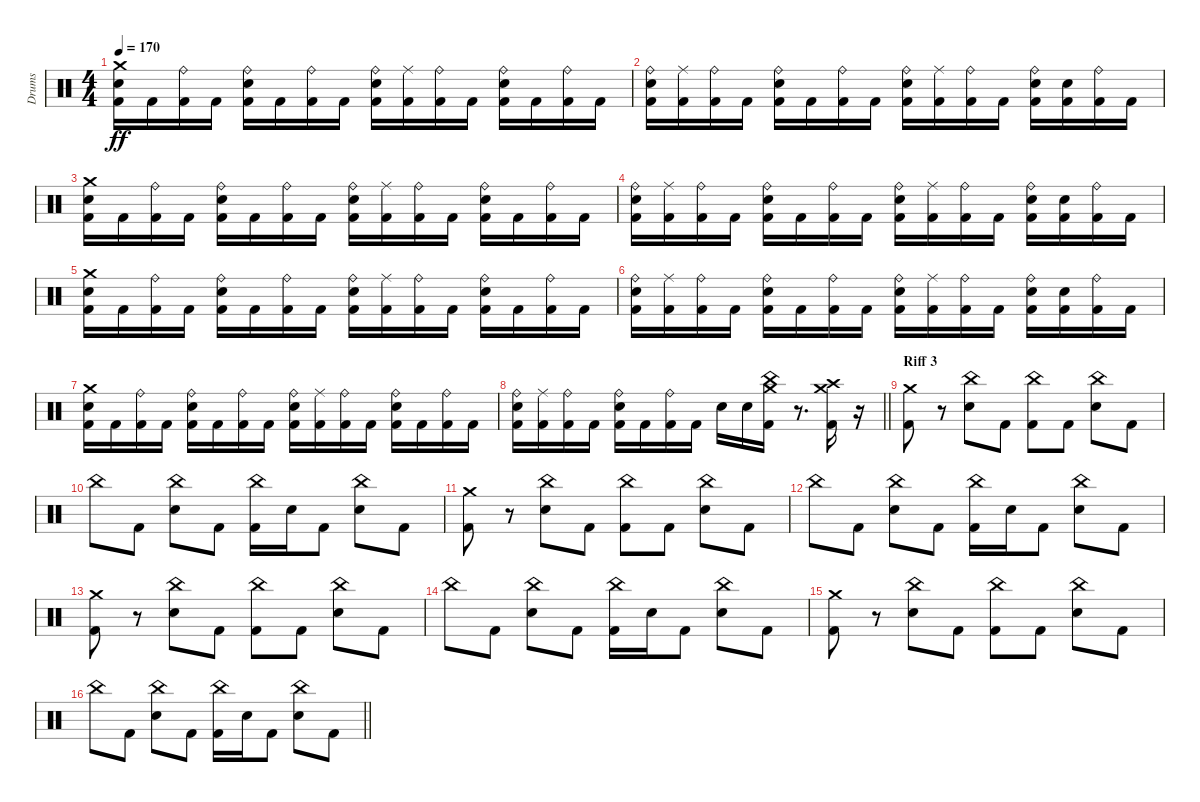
\track ("Drums" "Drums") {instrument percussion}
\staff {score}
\articulation defaults
\ts (4 4)
\tempo 170
\clef neutral
\ks c
("Crash medium (hit)" "Kick (hit) 2" "Snare (hit) 2").16{dy ff} "Kick (hit) 2".16 ("Kick (hit) 2" "Ride (bell)").16 "Kick (hit) 2".16 ("Kick (hit) 2" "Snare (hit) 2" "Ride (bell)").16 "Kick (hit) 2".16 ("Kick (hit) 2" "Ride (bell)").16 "Kick (hit) 2".16 ("Kick (hit) 2" "Snare (hit) 2" "Ride (bell)").16 ("Kick (hit) 2" "Ride (middle)").16 ("Kick (hit) 2" "Ride (bell)").16 "Kick (hit) 2".16 ("Kick (hit) 2" "Snare (hit) 2" "Ride (bell)").16 "Kick (hit) 2".16 ("Kick (hit) 2" "Ride (bell)").16 "Kick (hit) 2".16 |
("Kick (hit) 2" "Snare (hit) 2" "Ride (bell)").16 ("Kick (hit) 2" "Ride (middle)").16 ("Kick (hit) 2" "Ride (bell)").16 "Kick (hit) 2".16 ("Kick (hit) 2" "Snare (hit) 2" "Ride (bell)").16 "Kick (hit) 2".16 ("Kick (hit) 2" "Ride (bell)").16 "Kick (hit) 2".16 ("Kick (hit) 2" "Snare (hit) 2" "Ride (bell)").16 ("Kick (hit) 2" "Ride (middle)").16 ("Kick (hit) 2" "Ride (bell)").16 "Kick (hit) 2".16 ("Kick (hit) 2" "Snare (hit) 2" "Ride (bell)").16 ("Kick (hit) 2" "Snare (hit) 2").16 ("Kick (hit) 2" "Ride (bell)").16 "Kick (hit) 2".16 |
("Crash medium (hit)" "Kick (hit) 2" "Snare (hit) 2").16 "Kick (hit) 2".16 ("Kick (hit) 2" "Ride (bell)").16 "Kick (hit) 2".16 ("Kick (hit) 2" "Snare (hit) 2" "Ride (bell)").16 "Kick (hit) 2".16 ("Kick (hit) 2" "Ride (bell)").16 "Kick (hit) 2".16 ("Kick (hit) 2" "Snare (hit) 2" "Ride (bell)").16 ("Kick (hit) 2" "Ride (middle)").16 ("Kick (hit) 2" "Ride (bell)").16 "Kick (hit) 2".16 ("Kick (hit) 2" "Snare (hit) 2" "Ride (bell)").16 "Kick (hit) 2".16 ("Kick (hit) 2" "Ride (bell)").16 "Kick (hit) 2".16 |
("Kick (hit) 2" "Snare (hit) 2" "Ride (bell)").16 ("Kick (hit) 2" "Ride (middle)").16 ("Kick (hit) 2" "Ride (bell)").16 "Kick (hit) 2".16 ("Kick (hit) 2" "Snare (hit) 2" "Ride (bell)").16 "Kick (hit) 2".16 ("Kick (hit) 2" "Ride (bell)").16 "Kick (hit) 2".16 ("Kick (hit) 2" "Snare (hit) 2" "Ride (bell)").16 ("Kick (hit) 2" "Ride (middle)").16 ("Kick (hit) 2" "Ride (bell)").16 "Kick (hit) 2".16 ("Kick (hit) 2" "Snare (hit) 2" "Ride (bell)").16 ("Kick (hit) 2" "Snare (hit) 2").16 ("Kick (hit) 2" "Ride (bell)").16 "Kick (hit) 2".16 |
("Crash medium (hit)" "Kick (hit) 2" "Snare (hit) 2").16 "Kick (hit) 2".16 ("Kick (hit) 2" "Ride (bell)").16 "Kick (hit) 2".16 ("Kick (hit) 2" "Snare (hit) 2" "Ride (bell)").16 "Kick (hit) 2".16 ("Kick (hit) 2" "Ride (bell)").16 "Kick (hit) 2".16 ("Kick (hit) 2" "Snare (hit) 2" "Ride (bell)").16 ("Kick (hit) 2" "Ride (middle)").16 ("Kick (hit) 2" "Ride (bell)").16 "Kick (hit) 2".16 ("Kick (hit) 2" "Snare (hit) 2" "Ride (bell)").16 "Kick (hit) 2".16 ("Kick (hit) 2" "Ride (bell)").16 "Kick (hit) 2".16 |
("Kick (hit) 2" "Snare (hit) 2" "Ride (bell)").16 ("Kick (hit) 2" "Ride (middle)").16 ("Kick (hit) 2" "Ride (bell)").16 "Kick (hit) 2".16 ("Kick (hit) 2" "Snare (hit) 2" "Ride (bell)").16 "Kick (hit) 2".16 ("Kick (hit) 2" "Ride (bell)").16 "Kick (hit) 2".16 ("Kick (hit) 2" "Snare (hit) 2" "Ride (bell)").16 ("Kick (hit) 2" "Ride (middle)").16 ("Kick (hit) 2" "Ride (bell)").16 "Kick (hit) 2".16 ("Kick (hit) 2" "Snare (hit) 2" "Ride (bell)").16 ("Kick (hit) 2" "Snare (hit) 2").16 ("Kick (hit) 2" "Ride (bell)").16 "Kick (hit) 2".16 |
("Crash medium (hit)" "Kick (hit) 2" "Snare (hit) 2").16 "Kick (hit) 2".16 ("Kick (hit) 2" "Ride (bell)").16 "Kick (hit) 2".16 ("Kick (hit) 2" "Snare (hit) 2" "Ride (bell)").16 "Kick (hit) 2".16 ("Kick (hit) 2" "Ride (bell)").16 "Kick (hit) 2".16 ("Kick (hit) 2" "Snare (hit) 2" "Ride (bell)").16 ("Kick (hit) 2" "Ride (middle)").16 ("Kick (hit) 2" "Ride (bell)").16 "Kick (hit) 2".16 ("Kick (hit) 2" "Snare (hit) 2" "Ride (bell)").16 "Kick (hit) 2".16 ("Kick (hit) 2" "Ride (bell)").16 "Kick (hit) 2".16 |
\barLineRight lightlight
("Kick (hit) 2" "Snare (hit) 2" "Ride (bell)").16 ("Kick (hit) 2" "Ride (middle)").16 ("Kick (hit) 2" "Ride (bell)").16 "Kick (hit) 2".16 ("Kick (hit) 2" "Snare (hit) 2" "Ride (bell)").16 "Kick (hit) 2".16 ("Kick (hit) 2" "Ride (bell)").16 "Kick (hit) 2".16 "Snare (hit) 2".16 "Snare (hit) 2".16 ("China (hit)" "Crash medium (hit)" "Kick (hit) 2").16 r.8{d} ("Crash high (hit)" "Crash medium (hit)" "Kick (hit) 2").16 r.16 |
\section ("" "Riff 3")
("Crash medium (hit)" "Kick (hit) 2").8 r.8 ("China (hit)" "Snare (hit) 2").8 "Kick (hit) 2".8 ("China (hit)" "Kick (hit) 2").8 "Kick (hit) 2".8 ("China (hit)" "Snare (hit) 2").8 "Kick (hit) 2".8 |
"China (hit)".8 "Kick (hit) 2".8 ("China (hit)" "Snare (hit) 2").8 "Kick (hit) 2".8 ("China (hit)" "Kick (hit) 2").16 "Snare (hit) 2".16 "Kick (hit) 2".8 ("China (hit)" "Snare (hit) 2").8 "Kick (hit) 2".8 |
("Crash medium (hit)" "Kick (hit) 2").8 r.8 ("China (hit)" "Snare (hit) 2").8 "Kick (hit) 2".8 ("China (hit)" "Kick (hit) 2").8 "Kick (hit) 2".8 ("China (hit)" "Snare (hit) 2").8 "Kick (hit) 2".8 |
"China (hit)".8 "Kick (hit) 2".8 ("China (hit)" "Snare (hit) 2").8 "Kick (hit) 2".8 ("China (hit)" "Kick (hit) 2").16 "Snare (hit) 2".16 "Kick (hit) 2".8 ("China (hit)" "Snare (hit) 2").8 "Kick (hit) 2".8 |
("Crash medium (hit)" "Kick (hit) 2").8 r.8 ("China (hit)" "Snare (hit) 2").8 "Kick (hit) 2".8 ("China (hit)" "Kick (hit) 2").8 "Kick (hit) 2".8 ("China (hit)" "Snare (hit) 2").8 "Kick (hit) 2".8 |
"China (hit)".8 "Kick (hit) 2".8 ("China (hit)" "Snare (hit) 2").8 "Kick (hit) 2".8 ("China (hit)" "Kick (hit) 2").16 "Snare (hit) 2".16 "Kick (hit) 2".8 ("China (hit)" "Snare (hit) 2").8 "Kick (hit) 2".8 |
("Crash medium (hit)" "Kick (hit) 2").8 r.8 ("China (hit)" "Snare (hit) 2").8 "Kick (hit) 2".8 ("China (hit)" "Kick (hit) 2").8 "Kick (hit) 2".8 ("China (hit)" "Snare (hit) 2").8 "Kick (hit) 2".8 |
\barLineRight lightlight "China (hit)".8 "Kick (hit) 2".8
("China (hit)" "Snare (hit) 2").8 "Kick (hit) 2".8 ("China (hit)" "Kick (hit) 2").16 "Snare (hit) 2".16 "Kick (hit) 2".8 ("China (hit)" "Snare (hit) 2").8 "Kick (hit) 2".8
